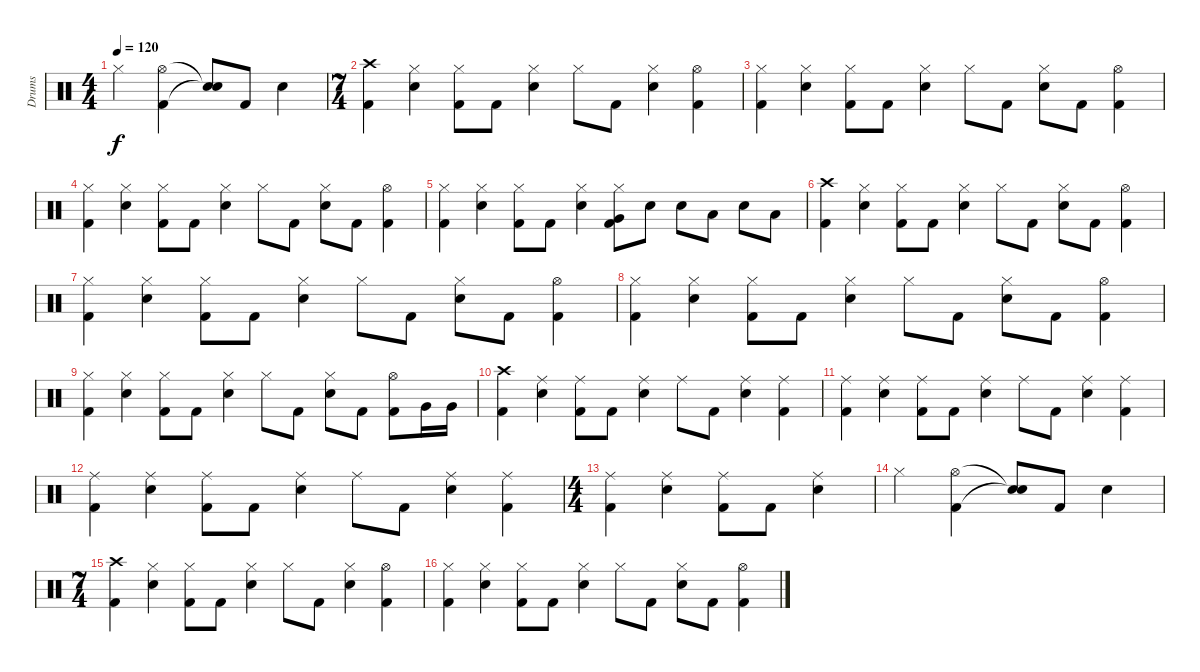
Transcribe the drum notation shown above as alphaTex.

\track ("Drums" "Drums") {instrument percussion}
\staff {score}
\articulation defaults
\ts (4 4)
\tempo 120
\clef neutral
\ks c "Hi-Hat (closed)".4{dy f}
("Hi-Hat (open)" "Kick (hit) 2").4 ("Snare (hit)"{t} "Snare (hit)"{t}).8 "Kick (hit) 2".8 "Snare (hit) 2".4 |
\ts (7 4)
("Crash high (hit)" "Kick (hit) 2").4 ("Hi-Hat (closed)" "Snare (hit) 2").4 ("Hi-Hat (closed)" "Kick (hit) 2").8 "Kick (hit) 2".8 ("Hi-Hat (closed)" "Snare (hit) 2").4 "Hi-Hat (closed)".8 "Kick (hit) 2".8 ("Hi-Hat (closed)" "Snare (hit) 2").4 ("Hi-Hat (open)" "Kick (hit) 2").4 |
("Hi-Hat (closed)" "Kick (hit) 2").4 ("Hi-Hat (closed)" "Snare (hit) 2").4 ("Hi-Hat (closed)" "Kick (hit) 2").8 "Kick (hit) 2".8 ("Hi-Hat (closed)" "Snare (hit) 2").4 "Hi-Hat (closed)".8 "Kick (hit) 2".8 ("Hi-Hat (closed)" "Snare (hit) 2").8 "Kick (hit) 2".8 ("Hi-Hat (open)" "Kick (hit) 2").4 |
("Hi-Hat (closed)" "Kick (hit) 2").4 ("Hi-Hat (closed)" "Snare (hit) 2").4 ("Hi-Hat (closed)" "Kick (hit) 2").8 "Kick (hit) 2".8 ("Hi-Hat (closed)" "Snare (hit) 2").4 "Hi-Hat (closed)".8 "Kick (hit) 2".8 ("Hi-Hat (closed)" "Snare (hit) 2").8 "Kick (hit) 2".8 ("Hi-Hat (open)" "Kick (hit) 2").4 |
("Hi-Hat (closed)" "Kick (hit) 2").4 ("Hi-Hat (closed)" "Snare (hit) 2").4 ("Hi-Hat (closed)" "Kick (hit) 2").8 "Kick (hit) 2".8 ("Hi-Hat (closed)" "Snare (hit) 2").4 ("Hi-Hat (closed)" "Very Low Tom (hit)" "Kick (hit) 2").8 "Snare (hit) 2".8 "Snare (hit) 2".8 "Low Tom (hit)".8 "Snare (hit) 2".8 "Low Tom (hit)".8 |
("Crash high (hit)" "Kick (hit) 2").4 ("Hi-Hat (closed)" "Snare (hit) 2").4 ("Hi-Hat (closed)" "Kick (hit) 2").8 "Kick (hit) 2".8 ("Hi-Hat (closed)" "Snare (hit) 2").4 "Hi-Hat (closed)".8 "Kick (hit) 2".8 ("Hi-Hat (closed)" "Snare (hit) 2").8 "Kick (hit) 2".8 ("Hi-Hat (open)" "Kick (hit) 2").4 |
("Hi-Hat (closed)" "Kick (hit) 2").4 ("Hi-Hat (closed)" "Snare (hit) 2").4 ("Hi-Hat (closed)" "Kick (hit) 2").8 "Kick (hit) 2".8 ("Hi-Hat (closed)" "Snare (hit) 2").4 "Hi-Hat (closed)".8 "Kick (hit) 2".8 ("Hi-Hat (closed)" "Snare (hit) 2").8 "Kick (hit) 2".8 ("Hi-Hat (open)" "Kick (hit) 2").4 |
("Hi-Hat (closed)" "Kick (hit) 2").4 ("Hi-Hat (closed)" "Snare (hit) 2").4 ("Hi-Hat (closed)" "Kick (hit) 2").8 "Kick (hit) 2".8 ("Hi-Hat (closed)" "Snare (hit) 2").4 "Hi-Hat (closed)".8 "Kick (hit) 2".8 ("Hi-Hat (closed)" "Snare (hit) 2").8 "Kick (hit) 2".8 ("Hi-Hat (open)" "Kick (hit) 2").4 |
("Hi-Hat (closed)" "Kick (hit) 2").4 ("Hi-Hat (closed)" "Snare (hit) 2").4 ("Hi-Hat (closed)" "Kick (hit) 2").8 "Kick (hit) 2".8 ("Hi-Hat (closed)" "Snare (hit) 2").4 "Hi-Hat (closed)".8 "Kick (hit) 2".8 ("Hi-Hat (closed)" "Snare (hit) 2").8 "Kick (hit) 2".8 ("Hi-Hat (open)" "Kick (hit) 2").8 "Very Low Tom (hit)".16 "Very Low Tom (hit)".16 |
("Crash high (hit)" "Kick (hit) 2").4 ("Ride (middle)" "Snare (hit) 2").4 ("Ride (middle)" "Kick (hit) 2").8 "Kick (hit) 2".8 ("Ride (middle)" "Snare (hit) 2").4 "Ride (middle)".8 "Kick (hit) 2".8 ("Ride (middle)" "Snare (hit) 2").4 ("Ride (middle)" "Kick (hit) 2").4 |
("Ride (middle)" "Kick (hit) 2").4 ("Ride (middle)" "Snare (hit) 2").4 ("Ride (middle)" "Kick (hit) 2").8 "Kick (hit) 2".8 ("Ride (middle)" "Snare (hit) 2").4 "Ride (middle)".8 "Kick (hit) 2".8 ("Ride (middle)" "Snare (hit) 2").4 ("Ride (middle)" "Kick (hit) 2").4 |
("Ride (middle)" "Kick (hit) 2").4 ("Ride (middle)" "Snare (hit) 2").4 ("Ride (middle)" "Kick (hit) 2").8 "Kick (hit) 2".8 ("Ride (middle)" "Snare (hit) 2").4 "Ride (middle)".8 "Kick (hit) 2".8 ("Ride (middle)" "Snare (hit) 2").4 ("Ride (middle)" "Kick (hit) 2").4 |
\ts (4 4)
("Ride (middle)" "Kick (hit) 2").4 ("Ride (middle)" "Snare (hit) 2").4 ("Ride (middle)" "Kick (hit) 2").8 "Kick (hit) 2".8 ("Ride (middle)" "Snare (hit) 2").4 |
"Hi-Hat (closed)".4 ("Hi-Hat (open)" "Kick (hit) 2").4 ("Snare (hit)"{t} "Snare (hit)"{t}).8 "Kick (hit) 2".8 "Snare (hit) 2".4 |
\ts (7 4)
("Crash high (hit)" "Kick (hit) 2").4 ("Hi-Hat (closed)" "Snare (hit) 2").4 ("Hi-Hat (closed)" "Kick (hit) 2").8 "Kick (hit) 2".8 ("Hi-Hat (closed)" "Snare (hit) 2").4 "Hi-Hat (closed)".8 "Kick (hit) 2".8 ("Hi-Hat (closed)" "Snare (hit) 2").4 ("Hi-Hat (open)" "Kick (hit) 2").4 |
("Hi-Hat (closed)" "Kick (hit) 2").4 ("Hi-Hat (closed)" "Snare (hit) 2").4 ("Hi-Hat (closed)" "Kick (hit) 2").8 "Kick (hit) 2".8 ("Hi-Hat (closed)" "Snare (hit) 2").4 "Hi-Hat (closed)".8 "Kick (hit) 2".8 ("Hi-Hat (closed)" "Snare (hit) 2").8 "Kick (hit) 2".8 ("Hi-Hat (open)" "Kick (hit) 2").4
